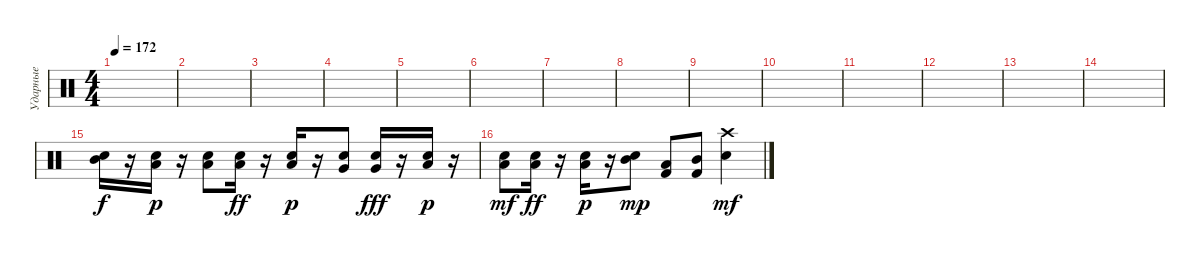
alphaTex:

\track ("Ударные" "Ударные") {instrument percussion}
\staff {score}
\articulation defaults
\ts (4 4)
\tempo 172
\clef neutral
\ks c
|
|
|
|
|
|
|
|
|
|
|
|
|
|
("Snare (hit) 2" "Mid Tom (hit)").16 r.16 ("Snare (hit) 2" "Low Floor Tom (hit)").16{dy p} r.16 ("Low Tom (hit)" "Electric Snare (hit)").8 ("Snare (hit) 2" "Low Tom (hit)").16{dy ff} r.16 ("Snare (hit) 2" "Low Floor Tom (hit)").16{dy p} r.16 ("Very Low Tom (hit)" "Electric Snare (hit)").8 ("Snare (hit) 2" "Very Low Tom (hit)").16{dy fff} r.16 ("Snare (hit) 2" "Low Floor Tom (hit)").16{dy p} r.16 |
("Electric Snare (hit)" "Low Tom (hit)").8{dy mf} ("Snare (hit) 2" "Low Tom (hit)").16{dy ff} r.16 ("Snare (hit) 2" "Low Floor Tom (hit)").16{dy p} r.16 ("Electric Snare (hit)" "Mid Tom (hit)").8{dy mp} ("Kick (hit) 2" "Low Tom (hit)").8 ("Kick (hit) 2" "Mid Tom (hit)").8 ("Crash high (hit)" "Electric Snare (hit)").4{dy mf}
